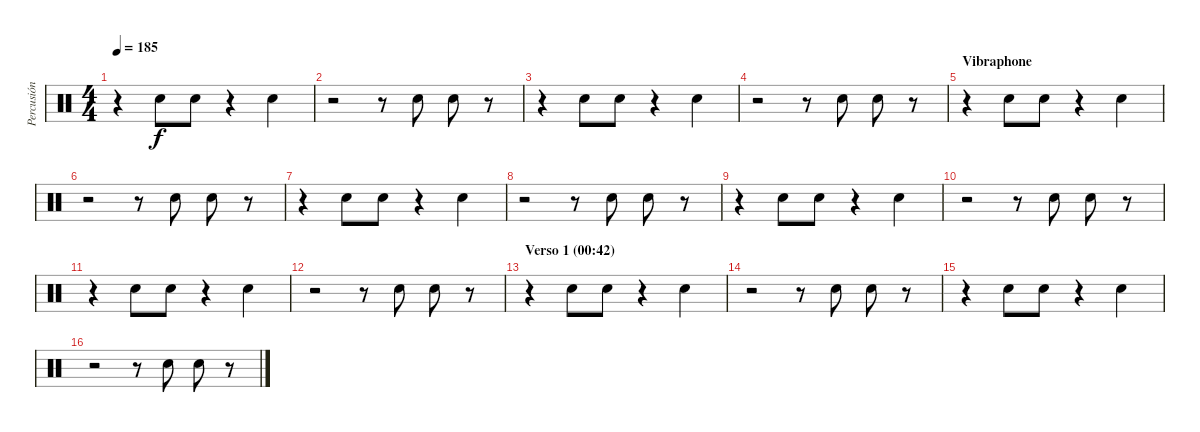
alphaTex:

\track ("Percusión" "Percusión") {instrument percussion}
\staff {score}
\articulation defaults
\ts (4 4)
\tempo 185
\clef neutral
\ks c
r.4{dy f} "Hand Clap (hit)".8 "Hand Clap (hit)".8 r.4 "Hand Clap (hit)".4 |
r.2 r.8 "Hand Clap (hit)".8 "Hand Clap (hit)".8 r.8 |
r.4 "Hand Clap (hit)".8 "Hand Clap (hit)".8 r.4 "Hand Clap (hit)".4 |
r.2 r.8 "Hand Clap (hit)".8 "Hand Clap (hit)".8 r.8 |
\section ("" "Vibraphone")
r.4 "Hand Clap (hit)".8 "Hand Clap (hit)".8 r.4 "Hand Clap (hit)".4 |
r.2 r.8 "Hand Clap (hit)".8 "Hand Clap (hit)".8 r.8 |
r.4 "Hand Clap (hit)".8 "Hand Clap (hit)".8 r.4 "Hand Clap (hit)".4 |
r.2 r.8 "Hand Clap (hit)".8 "Hand Clap (hit)".8 r.8 |
r.4 "Hand Clap (hit)".8 "Hand Clap (hit)".8 r.4 "Hand Clap (hit)".4 |
r.2 r.8 "Hand Clap (hit)".8 "Hand Clap (hit)".8 r.8 |
r.4 "Hand Clap (hit)".8 "Hand Clap (hit)".8 r.4 "Hand Clap (hit)".4 |
r.2 r.8 "Hand Clap (hit)".8 "Hand Clap (hit)".8 r.8 |
\section ("" "Verso 1 (00:42)")
r.4 "Hand Clap (hit)".8 "Hand Clap (hit)".8 r.4 "Hand Clap (hit)".4 |
r.2 r.8 "Hand Clap (hit)".8 "Hand Clap (hit)".8 r.8 |
r.4 "Hand Clap (hit)".8 "Hand Clap (hit)".8 r.4 "Hand Clap (hit)".4 |
r.2 r.8 "Hand Clap (hit)".8 "Hand Clap (hit)".8 r.8
